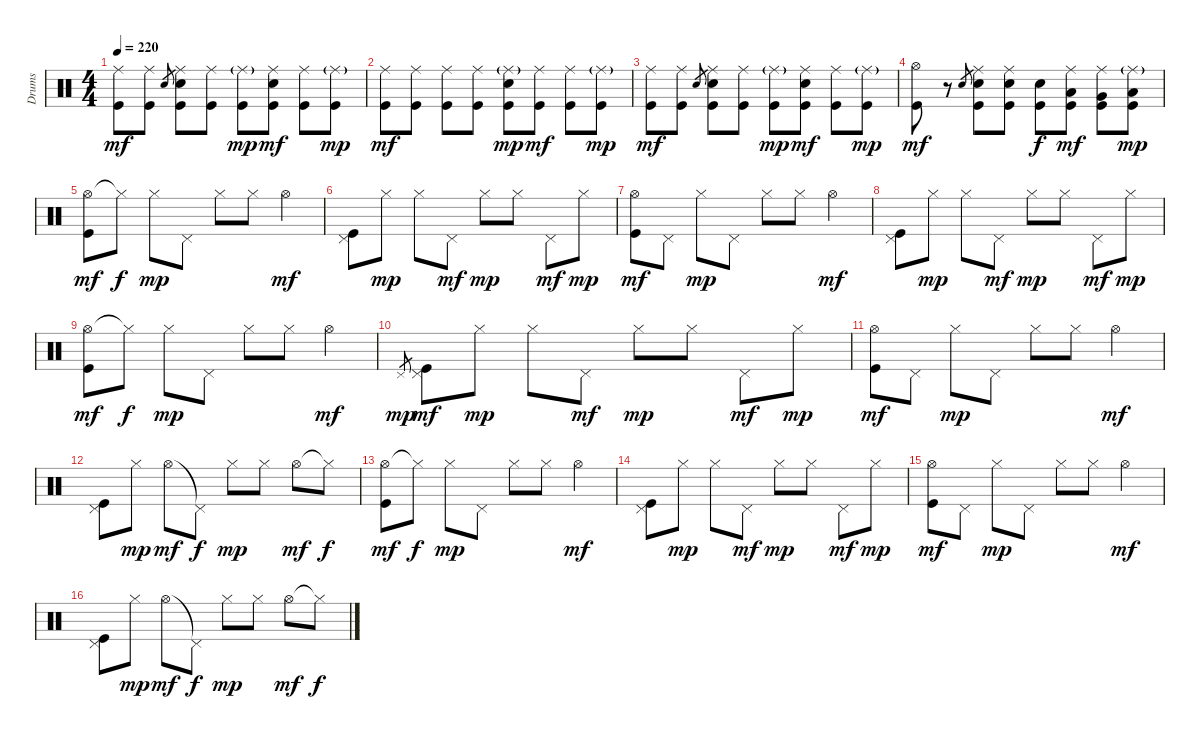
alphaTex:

\track ("Drums" "Drums") {instrument percussion}
\staff {score}
\articulation defaults
\ts (4 4)
\tempo 220
\clef neutral
\ks c
("Ride (middle)" "Kick (hit)").8{dy mf} ("Ride (middle)" "Kick (hit)").8 "Electric Snare (hit)".8{gr} ("Ride (middle)" "Electric Snare (hit)" "Kick (hit)").8 ("Ride (middle)" "Kick (hit)").8 ("Ride (middle)"{g} "Kick (hit)").8{dy mp} ("Ride (middle)" "Electric Snare (hit)" "Kick (hit)").8{dy mf} ("Ride (middle)" "Kick (hit)").8 ("Ride (middle)"{g} "Kick (hit)").8{dy mp} |
("Ride (middle)" "Kick (hit)").8{dy mf} ("Ride (middle)" "Kick (hit)").8 ("Ride (middle)" "Kick (hit)").8 ("Ride (middle)" "Kick (hit)").8 ("Ride (middle)"{g} "Electric Snare (hit)" "Kick (hit)").8{dy mp} ("Ride (middle)" "Kick (hit)").8{dy mf} ("Ride (middle)" "Kick (hit)").8 ("Ride (middle)"{g} "Kick (hit)").8{dy mp} |
("Ride (middle)" "Kick (hit)").8{dy mf} ("Ride (middle)" "Kick (hit)").8 "Electric Snare (hit)".8{gr} ("Ride (middle)" "Electric Snare (hit)" "Kick (hit)").8 ("Ride (middle)" "Kick (hit)").8 ("Ride (middle)"{g} "Kick (hit)").8{dy mp} ("Ride (middle)" "Electric Snare (hit)" "Kick (hit)").8{dy mf} ("Ride (middle)" "Kick (hit)").8 ("Ride (middle)"{g} "Kick (hit)").8{dy mp} |
("Hi-Hat (open)" "Kick (hit)").8{dy mf} r.8 "Electric Snare (hit)".8{gr} ("Ride (middle)" "Electric Snare (hit)" "Kick (hit)").8 ("Ride (middle)" "Electric Snare (hit)" "Kick (hit)").8 ("Electric Snare (hit)" "Kick (hit)").8{dy f} ("Ride (middle)" "Low Tom (hit)" "Kick (hit)").8{dy mf} ("Ride (middle)" "Very Low Tom (hit)" "Kick (hit)").8 ("Ride (middle)"{g} "Low Floor Tom (hit)" "Kick (hit)").8{dy mp} |
("Hi-Hat (open)" "Kick (hit)").8{dy mf} "Hi-Hat (closed)"{t}.8{dy f} "Hi-Hat (closed)".8{dy mp} "Pedal Hi-Hat (hit)".8 "Hi-Hat (closed)".8 "Hi-Hat (closed)".8 "Hi-Hat (open)".4{dy mf} |
("Pedal Hi-Hat (hit)" "Kick (hit)").8 "Hi-Hat (closed)".8{dy mp} "Hi-Hat (closed)".8 "Pedal Hi-Hat (hit)".8{dy mf} "Hi-Hat (closed)".8{dy mp} "Hi-Hat (closed)".8 "Pedal Hi-Hat (hit)".8{dy mf} "Hi-Hat (closed)".8{dy mp} |
("Hi-Hat (open)" "Kick (hit)").8{dy mf} "Pedal Hi-Hat (hit)".8 "Hi-Hat (closed)".8{dy mp} "Pedal Hi-Hat (hit)".8 "Hi-Hat (closed)".8 "Hi-Hat (closed)".8 "Hi-Hat (open)".4{dy mf} |
("Pedal Hi-Hat (hit)" "Kick (hit)").8 "Hi-Hat (closed)".8{dy mp} "Hi-Hat (closed)".8 "Pedal Hi-Hat (hit)".8{dy mf} "Hi-Hat (closed)".8{dy mp} "Hi-Hat (closed)".8 "Pedal Hi-Hat (hit)".8{dy mf} "Hi-Hat (closed)".8{dy mp} |
("Hi-Hat (open)" "Kick (hit)").8{dy mf} "Hi-Hat (closed)"{t}.8{dy f} "Hi-Hat (closed)".8{dy mp} "Pedal Hi-Hat (hit)".8 "Hi-Hat (closed)".8 "Hi-Hat (closed)".8 "Hi-Hat (open)".4{dy mf} |
"Pedal Hi-Hat (hit)".8{gr dy mp} ("Pedal Hi-Hat (hit)" "Kick (hit)").8{dy mf} "Hi-Hat (closed)".8{dy mp} "Hi-Hat (closed)".8 "Pedal Hi-Hat (hit)".8{dy mf} "Hi-Hat (closed)".8{dy mp} "Hi-Hat (closed)".8 "Pedal Hi-Hat (hit)".8{dy mf} "Hi-Hat (closed)".8{dy mp} |
("Hi-Hat (open)" "Kick (hit)").8{dy mf} "Pedal Hi-Hat (hit)".8 "Hi-Hat (closed)".8{dy mp} "Pedal Hi-Hat (hit)".8 "Hi-Hat (closed)".8 "Hi-Hat (closed)".8 "Hi-Hat (open)".4{dy mf} |
("Pedal Hi-Hat (hit)" "Kick (hit)").8 "Hi-Hat (closed)".8{dy mp} "Hi-Hat (open)".8{dy mf} "Pedal Hi-Hat (hit)"{t}.8{dy f} "Hi-Hat (closed)".8{dy mp} "Hi-Hat (closed)".8 "Hi-Hat (open)".8{dy mf} "Hi-Hat (closed)"{t}.8{dy f} |
("Hi-Hat (open)" "Kick (hit)").8{dy mf} "Hi-Hat (closed)"{t}.8{dy f} "Hi-Hat (closed)".8{dy mp} "Pedal Hi-Hat (hit)".8 "Hi-Hat (closed)".8 "Hi-Hat (closed)".8 "Hi-Hat (open)".4{dy mf} |
("Pedal Hi-Hat (hit)" "Kick (hit)").8 "Hi-Hat (closed)".8{dy mp} "Hi-Hat (closed)".8 "Pedal Hi-Hat (hit)".8{dy mf} "Hi-Hat (closed)".8{dy mp} "Hi-Hat (closed)".8 "Pedal Hi-Hat (hit)".8{dy mf} "Hi-Hat (closed)".8{dy mp} |
("Hi-Hat (open)" "Kick (hit)").8{dy mf} "Pedal Hi-Hat (hit)".8 "Hi-Hat (closed)".8{dy mp} "Pedal Hi-Hat (hit)".8 "Hi-Hat (closed)".8 "Hi-Hat (closed)".8 "Hi-Hat (open)".4{dy mf} |
("Pedal Hi-Hat (hit)" "Kick (hit)").8 "Hi-Hat (closed)".8{dy mp} "Hi-Hat (open)".8{dy mf} "Pedal Hi-Hat (hit)"{t}.8{dy f} "Hi-Hat (closed)".8{dy mp} "Hi-Hat (closed)".8 "Hi-Hat (open)".8{dy mf} "Hi-Hat (closed)"{t}.8{dy f}
